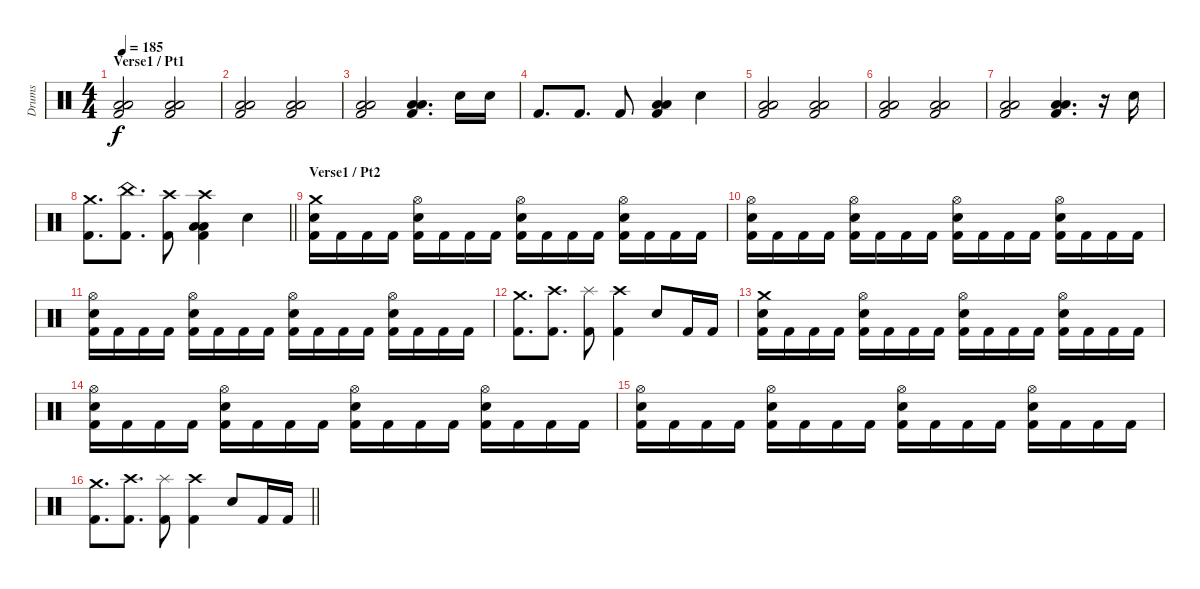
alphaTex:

\track ("Drums" "Drums") {instrument percussion}
\staff {score}
\articulation defaults
\ts (4 4)
\section ("" "Verse1 / Pt1")
\tempo 185
\clef neutral
\ks c
("Low Tom (hit)" "Low Floor Tom (hit)" "Kick (hit) 2").2{dy f} ("Low Tom (hit)" "Low Floor Tom (hit)" "Kick (hit) 2").2 |
("Low Tom (hit)" "Low Floor Tom (hit)" "Kick (hit) 2").2 ("Low Tom (hit)" "Low Floor Tom (hit)" "Kick (hit) 2").2 |
("Low Tom (hit)" "Low Floor Tom (hit)" "Kick (hit) 2").2 ("Low Tom (hit)" "Low Floor Tom (hit)" "Kick (hit) 2").4{d} "Electric Snare (hit)".16 "Electric Snare (hit)".16 |
"Kick (hit) 2".8{d} "Kick (hit) 2".8{d} "Kick (hit) 2".8 ("Low Tom (hit)" "Low Floor Tom (hit)" "Kick (hit) 2").4 "Electric Snare (hit)".4 |
("Low Tom (hit)" "Low Floor Tom (hit)" "Kick (hit) 2").2 ("Low Tom (hit)" "Low Floor Tom (hit)" "Kick (hit) 2").2 |
("Low Tom (hit)" "Low Floor Tom (hit)" "Kick (hit) 2").2 ("Low Tom (hit)" "Low Floor Tom (hit)" "Kick (hit) 2").2 |
("Low Tom (hit)" "Low Floor Tom (hit)" "Kick (hit) 2").2 ("Low Tom (hit)" "Low Floor Tom (hit)" "Kick (hit) 2").4{d} r.16 "Electric Snare (hit)".16 |
\barLineRight lightlight
("Crash medium (hit)" "Kick (hit) 2").8{d} ("China (hit)" "Kick (hit) 2").8{d} ("Crash high (hit)" "Kick (hit) 2").8 ("Crash high (hit)" "Low Tom (hit)" "Low Floor Tom (hit)" "Kick (hit) 2").4 "Electric Snare (hit)".4 |
\section ("" "Verse1 / Pt2")
("Crash medium (hit)" "Electric Snare (hit)" "Kick (hit) 2").16 "Kick (hit) 2".16 "Kick (hit) 2".16 "Kick (hit) 2".16 ("Hi-Hat (open)" "Electric Snare (hit)" "Kick (hit) 2").16 "Kick (hit) 2".16 "Kick (hit) 2".16 "Kick (hit) 2".16 ("Hi-Hat (open)" "Electric Snare (hit)" "Kick (hit) 2").16 "Kick (hit) 2".16 "Kick (hit) 2".16 "Kick (hit) 2".16 ("Hi-Hat (open)" "Electric Snare (hit)" "Kick (hit) 2").16 "Kick (hit) 2".16 "Kick (hit) 2".16 "Kick (hit) 2".16 |
("Hi-Hat (open)" "Electric Snare (hit)" "Kick (hit) 2").16 "Kick (hit) 2".16 "Kick (hit) 2".16 "Kick (hit) 2".16 ("Hi-Hat (open)" "Electric Snare (hit)" "Kick (hit) 2").16 "Kick (hit) 2".16 "Kick (hit) 2".16 "Kick (hit) 2".16 ("Hi-Hat (open)" "Electric Snare (hit)" "Kick (hit) 2").16 "Kick (hit) 2".16 "Kick (hit) 2".16 "Kick (hit) 2".16 ("Hi-Hat (open)" "Electric Snare (hit)" "Kick (hit) 2").16 "Kick (hit) 2".16 "Kick (hit) 2".16 "Kick (hit) 2".16 |
("Hi-Hat (open)" "Electric Snare (hit)" "Kick (hit) 2").16 "Kick (hit) 2".16 "Kick (hit) 2".16 "Kick (hit) 2".16 ("Hi-Hat (open)" "Electric Snare (hit)" "Kick (hit) 2").16 "Kick (hit) 2".16 "Kick (hit) 2".16 "Kick (hit) 2".16 ("Hi-Hat (open)" "Electric Snare (hit)" "Kick (hit) 2").16 "Kick (hit) 2".16 "Kick (hit) 2".16 "Kick (hit) 2".16 ("Hi-Hat (open)" "Electric Snare (hit)" "Kick (hit) 2").16 "Kick (hit) 2".16 "Kick (hit) 2".16 "Kick (hit) 2".16 |
("Crash medium (hit)" "Kick (hit) 2").8{d} ("Crash high (hit)" "Kick (hit) 2").8{d} ("Splash (hit)" "Kick (hit) 2").8 ("Crash high (hit)" "Kick (hit) 2").4 "Electric Snare (hit)".8 "Kick (hit) 2".16 "Kick (hit) 2".16 |
("Crash medium (hit)" "Electric Snare (hit)" "Kick (hit) 2").16 "Kick (hit) 2".16 "Kick (hit) 2".16 "Kick (hit) 2".16 ("Hi-Hat (open)" "Electric Snare (hit)" "Kick (hit) 2").16 "Kick (hit) 2".16 "Kick (hit) 2".16 "Kick (hit) 2".16 ("Hi-Hat (open)" "Electric Snare (hit)" "Kick (hit) 2").16 "Kick (hit) 2".16 "Kick (hit) 2".16 "Kick (hit) 2".16 ("Hi-Hat (open)" "Electric Snare (hit)" "Kick (hit) 2").16 "Kick (hit) 2".16 "Kick (hit) 2".16 "Kick (hit) 2".16 |
("Hi-Hat (open)" "Electric Snare (hit)" "Kick (hit) 2").16 "Kick (hit) 2".16 "Kick (hit) 2".16 "Kick (hit) 2".16 ("Hi-Hat (open)" "Electric Snare (hit)" "Kick (hit) 2").16 "Kick (hit) 2".16 "Kick (hit) 2".16 "Kick (hit) 2".16 ("Hi-Hat (open)" "Electric Snare (hit)" "Kick (hit) 2").16 "Kick (hit) 2".16 "Kick (hit) 2".16 "Kick (hit) 2".16 ("Hi-Hat (open)" "Electric Snare (hit)" "Kick (hit) 2").16 "Kick (hit) 2".16 "Kick (hit) 2".16 "Kick (hit) 2".16 |
("Hi-Hat (open)" "Electric Snare (hit)" "Kick (hit) 2").16 "Kick (hit) 2".16 "Kick (hit) 2".16 "Kick (hit) 2".16 ("Hi-Hat (open)" "Electric Snare (hit)" "Kick (hit) 2").16 "Kick (hit) 2".16 "Kick (hit) 2".16 "Kick (hit) 2".16 ("Hi-Hat (open)" "Electric Snare (hit)" "Kick (hit) 2").16 "Kick (hit) 2".16 "Kick (hit) 2".16 "Kick (hit) 2".16 ("Hi-Hat (open)" "Electric Snare (hit)" "Kick (hit) 2").16 "Kick (hit) 2".16 "Kick (hit) 2".16 "Kick (hit) 2".16 |
\barLineRight lightlight
("Crash medium (hit)" "Kick (hit) 2").8{d} ("Crash high (hit)" "Kick (hit) 2").8{d} ("Splash (hit)" "Kick (hit) 2").8 ("Crash high (hit)" "Kick (hit) 2").4 "Electric Snare (hit)".8 "Kick (hit) 2".16 "Kick (hit) 2".16
